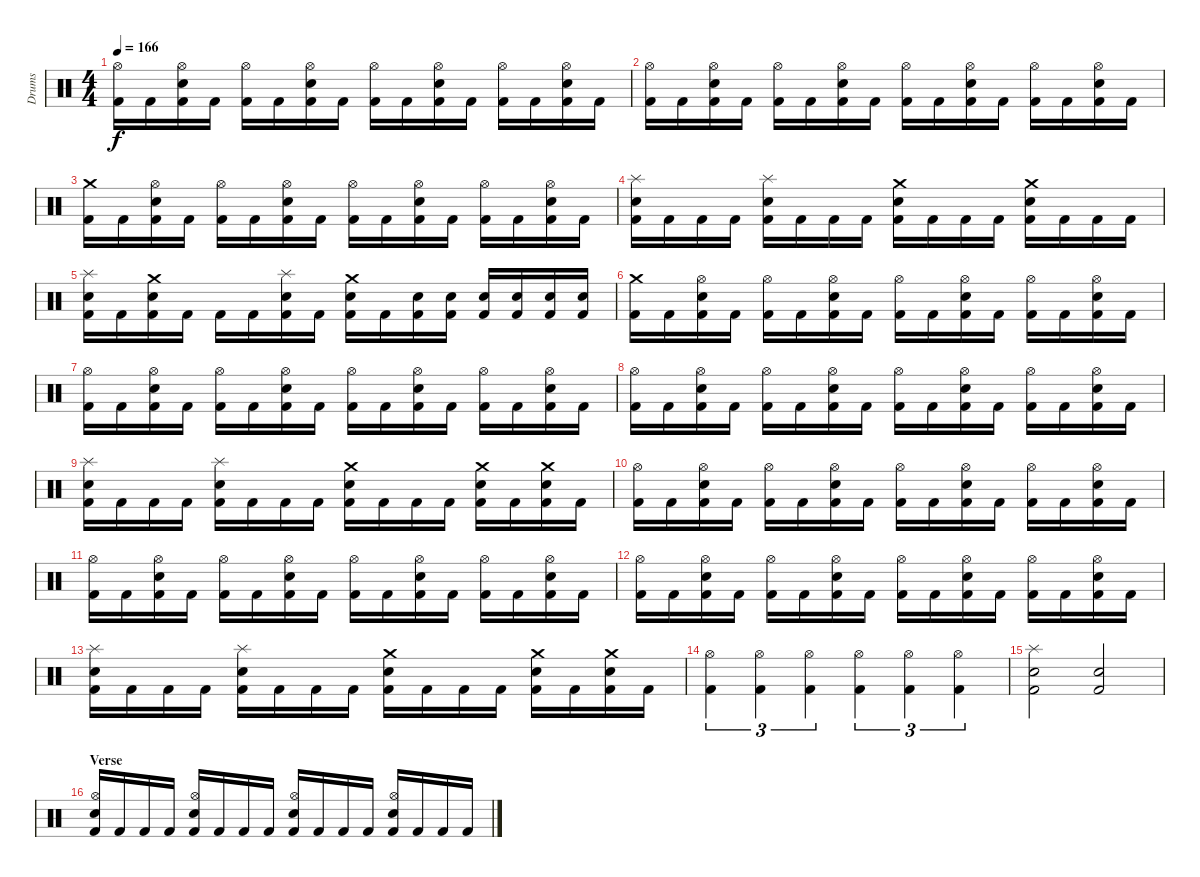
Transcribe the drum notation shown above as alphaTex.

\track ("Drums" "Drums") {instrument percussion}
\staff {score}
\articulation defaults
\ts (4 4)
\tempo 166
\clef neutral
\ks c
("Kick (hit) 2" "Hi-Hat (open)").16{dy f} "Kick (hit) 2".16 ("Kick (hit) 2" "Electric Snare (hit)" "Hi-Hat (open)").16 "Kick (hit) 2".16 ("Kick (hit) 2" "Hi-Hat (open)").16 "Kick (hit) 2".16 ("Kick (hit) 2" "Electric Snare (hit)" "Hi-Hat (open)").16 "Kick (hit) 2".16 ("Kick (hit) 2" "Hi-Hat (open)").16 "Kick (hit) 2".16 ("Kick (hit) 2" "Electric Snare (hit)" "Hi-Hat (open)").16 "Kick (hit) 2".16 ("Kick (hit) 2" "Hi-Hat (open)").16 "Kick (hit) 2".16 ("Kick (hit) 2" "Electric Snare (hit)" "Hi-Hat (open)").16 "Kick (hit) 2".16 |
("Kick (hit) 2" "Hi-Hat (open)").16 "Kick (hit) 2".16 ("Kick (hit) 2" "Electric Snare (hit)" "Hi-Hat (open)").16 "Kick (hit) 2".16 ("Kick (hit) 2" "Hi-Hat (open)").16 "Kick (hit) 2".16 ("Kick (hit) 2" "Electric Snare (hit)" "Hi-Hat (open)").16 "Kick (hit) 2".16 ("Kick (hit) 2" "Hi-Hat (open)").16 "Kick (hit) 2".16 ("Kick (hit) 2" "Electric Snare (hit)" "Hi-Hat (open)").16 "Kick (hit) 2".16 ("Kick (hit) 2" "Hi-Hat (open)").16 "Kick (hit) 2".16 ("Kick (hit) 2" "Electric Snare (hit)" "Hi-Hat (open)").16 "Kick (hit) 2".16 |
("Kick (hit) 2" "Crash medium (hit)").16 "Kick (hit) 2".16 ("Kick (hit) 2" "Electric Snare (hit)" "Hi-Hat (open)").16 "Kick (hit) 2".16 ("Kick (hit) 2" "Hi-Hat (open)").16 "Kick (hit) 2".16 ("Kick (hit) 2" "Electric Snare (hit)" "Hi-Hat (open)").16 "Kick (hit) 2".16 ("Kick (hit) 2" "Hi-Hat (open)").16 "Kick (hit) 2".16 ("Kick (hit) 2" "Electric Snare (hit)" "Hi-Hat (open)").16 "Kick (hit) 2".16 ("Kick (hit) 2" "Hi-Hat (open)").16 "Kick (hit) 2".16 ("Kick (hit) 2" "Electric Snare (hit)" "Hi-Hat (open)").16 "Kick (hit) 2".16 |
("Kick (hit) 2" "Electric Snare (hit)" "Splash (hit)").16 "Kick (hit) 2".16 "Kick (hit) 2".16 "Kick (hit) 2".16 ("Kick (hit) 2" "Electric Snare (hit)" "Splash (hit)").16 "Kick (hit) 2".16 "Kick (hit) 2".16 "Kick (hit) 2".16 ("Kick (hit) 2" "Electric Snare (hit)" "Crash medium (hit)").16 "Kick (hit) 2".16 "Kick (hit) 2".16 "Kick (hit) 2".16 ("Kick (hit) 2" "Electric Snare (hit)" "Crash medium (hit)").16 "Kick (hit) 2".16 "Kick (hit) 2".16 "Kick (hit) 2".16 |
("Kick (hit) 2" "Electric Snare (hit)" "Splash (hit)").16 "Kick (hit) 2".16 ("Kick (hit) 2" "Electric Snare (hit)" "Crash medium (hit)").16 "Kick (hit) 2".16 "Kick (hit) 2".16 "Kick (hit) 2".16 ("Kick (hit) 2" "Electric Snare (hit)" "Splash (hit)").16 "Kick (hit) 2".16 ("Kick (hit) 2" "Electric Snare (hit)" "Crash medium (hit)").16 "Kick (hit) 2".16 ("Kick (hit) 2" "Electric Snare (hit)").16 ("Kick (hit) 2" "Electric Snare (hit)").16 ("Kick (hit) 2" "Electric Snare (hit)").16 ("Kick (hit) 2" "Electric Snare (hit)").16 ("Kick (hit) 2" "Electric Snare (hit)").16 ("Kick (hit) 2" "Electric Snare (hit)").16 |
("Kick (hit) 2" "Crash medium (hit)").16 "Kick (hit) 2".16 ("Kick (hit) 2" "Electric Snare (hit)" "Hi-Hat (open)").16 "Kick (hit) 2".16 ("Kick (hit) 2" "Hi-Hat (open)").16 "Kick (hit) 2".16 ("Kick (hit) 2" "Electric Snare (hit)" "Hi-Hat (open)").16 "Kick (hit) 2".16 ("Kick (hit) 2" "Hi-Hat (open)").16 "Kick (hit) 2".16 ("Kick (hit) 2" "Electric Snare (hit)" "Hi-Hat (open)").16 "Kick (hit) 2".16 ("Kick (hit) 2" "Hi-Hat (open)").16 "Kick (hit) 2".16 ("Kick (hit) 2" "Electric Snare (hit)" "Hi-Hat (open)").16 "Kick (hit) 2".16 |
("Kick (hit) 2" "Hi-Hat (open)").16 "Kick (hit) 2".16 ("Kick (hit) 2" "Electric Snare (hit)" "Hi-Hat (open)").16 "Kick (hit) 2".16 ("Kick (hit) 2" "Hi-Hat (open)").16 "Kick (hit) 2".16 ("Kick (hit) 2" "Electric Snare (hit)" "Hi-Hat (open)").16 "Kick (hit) 2".16 ("Kick (hit) 2" "Hi-Hat (open)").16 "Kick (hit) 2".16 ("Kick (hit) 2" "Electric Snare (hit)" "Hi-Hat (open)").16 "Kick (hit) 2".16 ("Kick (hit) 2" "Hi-Hat (open)").16 "Kick (hit) 2".16 ("Kick (hit) 2" "Electric Snare (hit)" "Hi-Hat (open)").16 "Kick (hit) 2".16 |
("Kick (hit) 2" "Hi-Hat (open)").16 "Kick (hit) 2".16 ("Kick (hit) 2" "Electric Snare (hit)" "Hi-Hat (open)").16 "Kick (hit) 2".16 ("Kick (hit) 2" "Hi-Hat (open)").16 "Kick (hit) 2".16 ("Kick (hit) 2" "Electric Snare (hit)" "Hi-Hat (open)").16 "Kick (hit) 2".16 ("Kick (hit) 2" "Hi-Hat (open)").16 "Kick (hit) 2".16 ("Kick (hit) 2" "Electric Snare (hit)" "Hi-Hat (open)").16 "Kick (hit) 2".16 ("Kick (hit) 2" "Hi-Hat (open)").16 "Kick (hit) 2".16 ("Kick (hit) 2" "Electric Snare (hit)" "Hi-Hat (open)").16 "Kick (hit) 2".16 |
("Kick (hit) 2" "Electric Snare (hit)" "Splash (hit)").16 "Kick (hit) 2".16 "Kick (hit) 2".16 "Kick (hit) 2".16 ("Kick (hit) 2" "Electric Snare (hit)" "Splash (hit)").16 "Kick (hit) 2".16 "Kick (hit) 2".16 "Kick (hit) 2".16 ("Kick (hit) 2" "Electric Snare (hit)" "Crash medium (hit)").16 "Kick (hit) 2".16 "Kick (hit) 2".16 "Kick (hit) 2".16 ("Kick (hit) 2" "Electric Snare (hit)" "Crash medium (hit)").16 "Kick (hit) 2".16 ("Kick (hit) 2" "Electric Snare (hit)" "Crash medium (hit)").16 "Kick (hit) 2".16 |
\section ("" "")
("Kick (hit) 2" "Hi-Hat (open)").16 "Kick (hit) 2".16 ("Kick (hit) 2" "Electric Snare (hit)" "Hi-Hat (open)").16 "Kick (hit) 2".16 ("Kick (hit) 2" "Hi-Hat (open)").16 "Kick (hit) 2".16 ("Kick (hit) 2" "Electric Snare (hit)" "Hi-Hat (open)").16 "Kick (hit) 2".16 ("Kick (hit) 2" "Hi-Hat (open)").16 "Kick (hit) 2".16 ("Kick (hit) 2" "Electric Snare (hit)" "Hi-Hat (open)").16 "Kick (hit) 2".16 ("Kick (hit) 2" "Hi-Hat (open)").16 "Kick (hit) 2".16 ("Kick (hit) 2" "Electric Snare (hit)" "Hi-Hat (open)").16 "Kick (hit) 2".16 |
("Kick (hit) 2" "Hi-Hat (open)").16 "Kick (hit) 2".16 ("Kick (hit) 2" "Electric Snare (hit)" "Hi-Hat (open)").16 "Kick (hit) 2".16 ("Kick (hit) 2" "Hi-Hat (open)").16 "Kick (hit) 2".16 ("Kick (hit) 2" "Electric Snare (hit)" "Hi-Hat (open)").16 "Kick (hit) 2".16 ("Kick (hit) 2" "Hi-Hat (open)").16 "Kick (hit) 2".16 ("Kick (hit) 2" "Electric Snare (hit)" "Hi-Hat (open)").16 "Kick (hit) 2".16 ("Kick (hit) 2" "Hi-Hat (open)").16 "Kick (hit) 2".16 ("Kick (hit) 2" "Electric Snare (hit)" "Hi-Hat (open)").16 "Kick (hit) 2".16 |
("Kick (hit) 2" "Hi-Hat (open)").16 "Kick (hit) 2".16 ("Kick (hit) 2" "Electric Snare (hit)" "Hi-Hat (open)").16 "Kick (hit) 2".16 ("Kick (hit) 2" "Hi-Hat (open)").16 "Kick (hit) 2".16 ("Kick (hit) 2" "Electric Snare (hit)" "Hi-Hat (open)").16 "Kick (hit) 2".16 ("Kick (hit) 2" "Hi-Hat (open)").16 "Kick (hit) 2".16 ("Kick (hit) 2" "Electric Snare (hit)" "Hi-Hat (open)").16 "Kick (hit) 2".16 ("Kick (hit) 2" "Hi-Hat (open)").16 "Kick (hit) 2".16 ("Kick (hit) 2" "Electric Snare (hit)" "Hi-Hat (open)").16 "Kick (hit) 2".16 |
("Kick (hit) 2" "Electric Snare (hit)" "Splash (hit)").16 "Kick (hit) 2".16 "Kick (hit) 2".16 "Kick (hit) 2".16 ("Kick (hit) 2" "Electric Snare (hit)" "Splash (hit)").16 "Kick (hit) 2".16 "Kick (hit) 2".16 "Kick (hit) 2".16 ("Kick (hit) 2" "Electric Snare (hit)" "Crash medium (hit)").16 "Kick (hit) 2".16 "Kick (hit) 2".16 "Kick (hit) 2".16 ("Kick (hit) 2" "Electric Snare (hit)" "Crash medium (hit)").16 "Kick (hit) 2".16 ("Kick (hit) 2" "Electric Snare (hit)" "Crash medium (hit)").16 "Kick (hit) 2".16 |
("Kick (hit) 2" "Hi-Hat (open)").4{tu (3 2)} ("Kick (hit) 2" "Hi-Hat (open)").4{tu (3 2)} ("Kick (hit) 2" "Hi-Hat (open)").4{tu (3 2)} ("Kick (hit) 2" "Hi-Hat (open)").4{tu (3 2)} ("Kick (hit) 2" "Hi-Hat (open)").4{tu (3 2)} ("Kick (hit) 2" "Hi-Hat (open)").4{tu (3 2)} |
("Kick (hit) 2" "Electric Snare (hit)" "Splash (hit)").2 ("Kick (hit) 2" "Electric Snare (hit)").2 |
\section ("" "Verse")
("Kick (hit) 2" "Electric Snare (hit)" "Hi-Hat (open)").16 "Kick (hit) 2".16 "Kick (hit) 2".16 "Kick (hit) 2".16 ("Kick (hit) 2" "Electric Snare (hit)" "Hi-Hat (open)").16 "Kick (hit) 2".16 "Kick (hit) 2".16 "Kick (hit) 2".16 ("Kick (hit) 2" "Electric Snare (hit)" "Hi-Hat (open)").16 "Kick (hit) 2".16 "Kick (hit) 2".16 "Kick (hit) 2".16 ("Kick (hit) 2" "Electric Snare (hit)" "Hi-Hat (open)").16 "Kick (hit) 2".16 "Kick (hit) 2".16 "Kick (hit) 2".16
